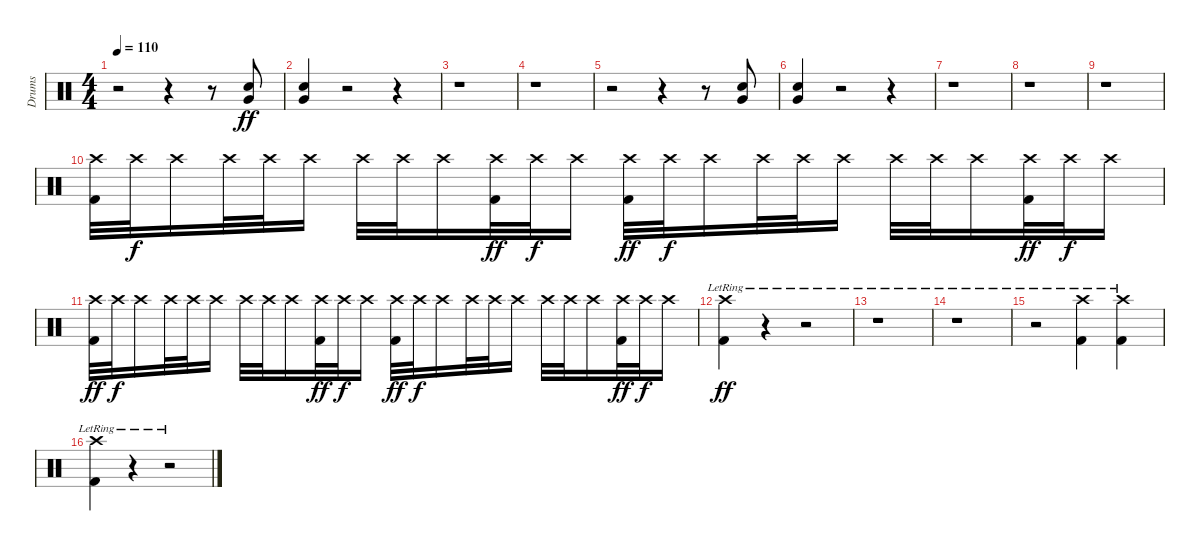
\track ("Drums" "Drums") {instrument percussion}
\staff {score}
\articulation defaults
\ts (4 4)
\tempo 110
\clef neutral
\ks c
r.2{dy ff} r.4 r.8 ("Very Low Tom (hit)" "Snare (hit) 2").8 |
("Very Low Tom (hit)" "Snare (hit) 2").4 r.2 r.4 |
r.1 |
r.1 |
r.2 r.4 r.8 ("Very Low Tom (hit)" "Snare (hit) 2").8 |
("Very Low Tom (hit)" "Snare (hit) 2").4 r.2 r.4 |
r.1 |
r.1 |
r.1{volume 5} |
("Crash high (hit)" "Kick (hit) 2").32{volume 14} "Crash high (hit)".32{dy f} "Crash high (hit)".16 "Crash high (hit)".32 "Crash high (hit)".32 "Crash high (hit)".16 "Crash high (hit)".32 "Crash high (hit)".32 "Crash high (hit)".16 ("Crash high (hit)" "Kick (hit) 2").32{dy ff} "Crash high (hit)".32{dy f} "Crash high (hit)".16 ("Crash high (hit)" "Kick (hit) 2").32{dy ff} "Crash high (hit)".32{dy f} "Crash high (hit)".16 "Crash high (hit)".32 "Crash high (hit)".32 "Crash high (hit)".16 "Crash high (hit)".32 "Crash high (hit)".32 "Crash high (hit)".16 ("Crash high (hit)" "Kick (hit) 2").32{dy ff} "Crash high (hit)".32{dy f} "Crash high (hit)".16 |
("Crash high (hit)" "Kick (hit) 2").32{dy ff} "Crash high (hit)".32{dy f} "Crash high (hit)".16 "Crash high (hit)".32 "Crash high (hit)".32 "Crash high (hit)".16 "Crash high (hit)".32 "Crash high (hit)".32 "Crash high (hit)".16 ("Crash high (hit)" "Kick (hit) 2").32{dy ff} "Crash high (hit)".32{dy f} "Crash high (hit)".16 ("Crash high (hit)" "Kick (hit) 2").32{dy ff} "Crash high (hit)".32{dy f} "Crash high (hit)".16 "Crash high (hit)".32 "Crash high (hit)".32 "Crash high (hit)".16 "Crash high (hit)".32 "Crash high (hit)".32 "Crash high (hit)".16 ("Crash high (hit)" "Kick (hit) 2").32{dy ff} "Crash high (hit)".32{dy f} "Crash high (hit)".16 |
("Crash high (hit)"{lr} "Kick (hit) 2"{lr}).4{dy ff} r.4 r.2 |
r.1 |
r.1 |
r.2 ("Crash high (hit)"{lr} "Kick (hit) 2"{lr}).4 ("Crash high (hit)"{lr} "Kick (hit) 2"{lr}).4 |
("Crash high (hit)"{lr} "Kick (hit) 2"{lr}).4 r.4 r.2
